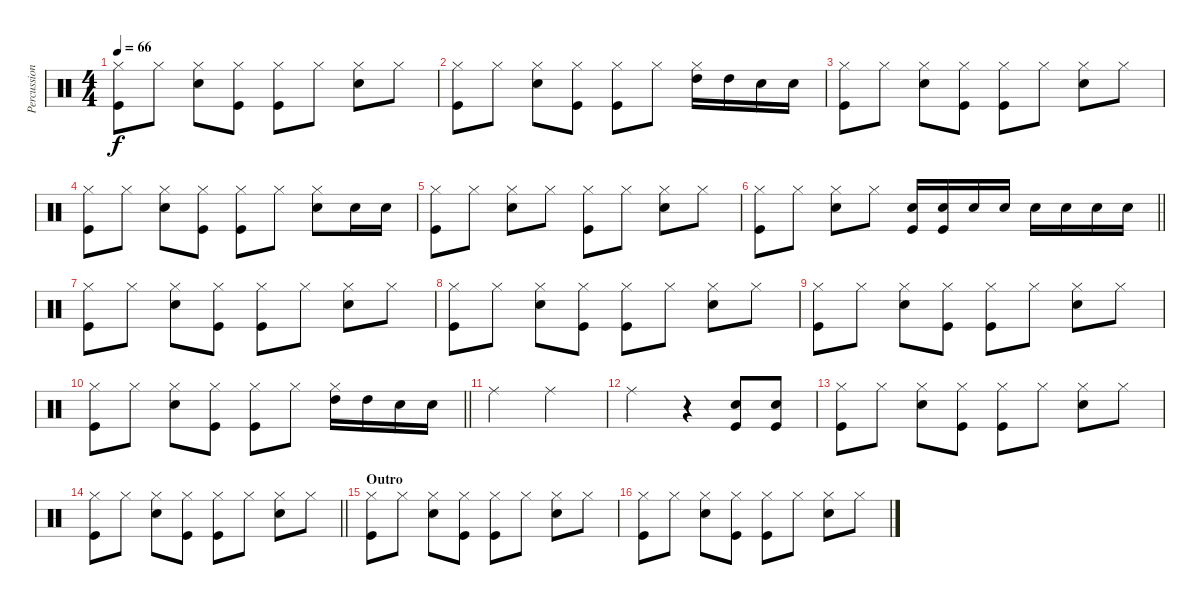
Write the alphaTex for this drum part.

\track ("Percussion" "Percussion") {instrument percussion}
\staff {score}
\articulation defaults
\ts (4 4)
\tempo 66
\clef neutral
\ks c
("Hi-Hat (closed)" "Kick (hit)").8{dy f} "Hi-Hat (closed)".8 ("Hi-Hat (closed)" "Snare (hit) 2").8 ("Hi-Hat (closed)" "Kick (hit)").8 ("Hi-Hat (closed)" "Kick (hit)").8 "Hi-Hat (closed)".8 ("Hi-Hat (closed)" "Snare (hit) 2").8 "Hi-Hat (closed)".8 |
("Hi-Hat (closed)" "Kick (hit)").8 "Hi-Hat (closed)".8 ("Hi-Hat (closed)" "Snare (hit) 2").8 ("Hi-Hat (closed)" "Kick (hit)").8 ("Hi-Hat (closed)" "Kick (hit)").8 "Hi-Hat (closed)".8 ("Hi-Hat (closed)" "High Tom (hit)").16 "High Tom (hit)".16 "Snare (hit) 2".16 "Snare (hit) 2".16 |
("Hi-Hat (closed)" "Kick (hit)").8 "Hi-Hat (closed)".8 ("Hi-Hat (closed)" "Snare (hit) 2").8 ("Hi-Hat (closed)" "Kick (hit)").8 ("Hi-Hat (closed)" "Kick (hit)").8 "Hi-Hat (closed)".8 ("Hi-Hat (closed)" "Snare (hit) 2").8 "Hi-Hat (closed)".8 |
("Hi-Hat (closed)" "Kick (hit)").8 "Hi-Hat (closed)".8 ("Hi-Hat (closed)" "Snare (hit) 2").8 ("Hi-Hat (closed)" "Kick (hit)").8 ("Hi-Hat (closed)" "Kick (hit)").8 "Hi-Hat (closed)".8 ("Hi-Hat (closed)" "Snare (hit) 2").8 "Snare (hit) 2".16 "Snare (hit) 2".16 |
("Hi-Hat (closed)" "Kick (hit)").8 "Hi-Hat (closed)".8 ("Hi-Hat (closed)" "Snare (hit) 2").8 "Hi-Hat (closed)".8 ("Hi-Hat (closed)" "Kick (hit)").8 "Hi-Hat (closed)".8 ("Hi-Hat (closed)" "Snare (hit) 2").8 "Hi-Hat (closed)".8 |
\barLineRight lightlight
("Hi-Hat (closed)" "Kick (hit)").8 "Hi-Hat (closed)".8 ("Hi-Hat (closed)" "Snare (hit) 2").8 "Hi-Hat (closed)".8 ("Snare (hit) 2" "Kick (hit)").16 ("Snare (hit) 2" "Kick (hit)").16 "Snare (hit) 2".16 "Snare (hit) 2".16 "Snare (hit) 2".16 "Snare (hit) 2".16 "Snare (hit) 2".16 "Snare (hit) 2".16 |
("Hi-Hat (closed)" "Kick (hit)").8 "Hi-Hat (closed)".8 ("Hi-Hat (closed)" "Snare (hit) 2").8 ("Hi-Hat (closed)" "Kick (hit)").8 ("Hi-Hat (closed)" "Kick (hit)").8 "Hi-Hat (closed)".8 ("Hi-Hat (closed)" "Snare (hit) 2").8 "Hi-Hat (closed)".8 |
("Hi-Hat (closed)" "Kick (hit)").8 "Hi-Hat (closed)".8 ("Hi-Hat (closed)" "Snare (hit) 2").8 ("Hi-Hat (closed)" "Kick (hit)").8 ("Hi-Hat (closed)" "Kick (hit)").8 "Hi-Hat (closed)".8 ("Hi-Hat (closed)" "Snare (hit) 2").8 "Hi-Hat (closed)".8 |
("Hi-Hat (closed)" "Kick (hit)").8 "Hi-Hat (closed)".8 ("Hi-Hat (closed)" "Snare (hit) 2").8 ("Hi-Hat (closed)" "Kick (hit)").8 ("Hi-Hat (closed)" "Kick (hit)").8 "Hi-Hat (closed)".8 ("Hi-Hat (closed)" "Snare (hit) 2").8 "Hi-Hat (closed)".8 |
\barLineRight lightlight
("Hi-Hat (closed)" "Kick (hit)").8 "Hi-Hat (closed)".8 ("Hi-Hat (closed)" "Snare (hit) 2").8 ("Hi-Hat (closed)" "Kick (hit)").8 ("Hi-Hat (closed)" "Kick (hit)").8 "Hi-Hat (closed)".8 ("Hi-Hat (closed)" "High Tom (hit)").16 "High Tom (hit)".16 "Snare (hit) 2".16 "Snare (hit) 2".16 |
"Ride (middle)".2 "Ride (middle)".2 |
"Ride (middle)".2 r.4 ("Snare (hit) 2" "Kick (hit)").8 ("Snare (hit) 2" "Kick (hit)").8 |
("Hi-Hat (closed)" "Kick (hit)").8 "Hi-Hat (closed)".8 ("Hi-Hat (closed)" "Snare (hit) 2").8 ("Hi-Hat (closed)" "Kick (hit)").8 ("Hi-Hat (closed)" "Kick (hit)").8 "Hi-Hat (closed)".8 ("Hi-Hat (closed)" "Snare (hit) 2").8 "Hi-Hat (closed)".8 |
\barLineRight lightlight
("Hi-Hat (closed)" "Kick (hit)").8 "Hi-Hat (closed)".8 ("Hi-Hat (closed)" "Snare (hit) 2").8 ("Hi-Hat (closed)" "Kick (hit)").8 ("Hi-Hat (closed)" "Kick (hit)").8 "Hi-Hat (closed)".8 ("Hi-Hat (closed)" "Snare (hit) 2").8 "Hi-Hat (closed)".8 |
\section ("" "Outro")
("Hi-Hat (closed)" "Kick (hit)").8 "Hi-Hat (closed)".8 ("Hi-Hat (closed)" "Snare (hit) 2").8 ("Hi-Hat (closed)" "Kick (hit)").8 ("Hi-Hat (closed)" "Kick (hit)").8 "Hi-Hat (closed)".8 ("Hi-Hat (closed)" "Snare (hit) 2").8 "Hi-Hat (closed)".8 |
("Hi-Hat (closed)" "Kick (hit)").8 "Hi-Hat (closed)".8 ("Hi-Hat (closed)" "Snare (hit) 2").8 ("Hi-Hat (closed)" "Kick (hit)").8 ("Hi-Hat (closed)" "Kick (hit)").8 "Hi-Hat (closed)".8 ("Hi-Hat (closed)" "Snare (hit) 2").8 "Hi-Hat (closed)".8
